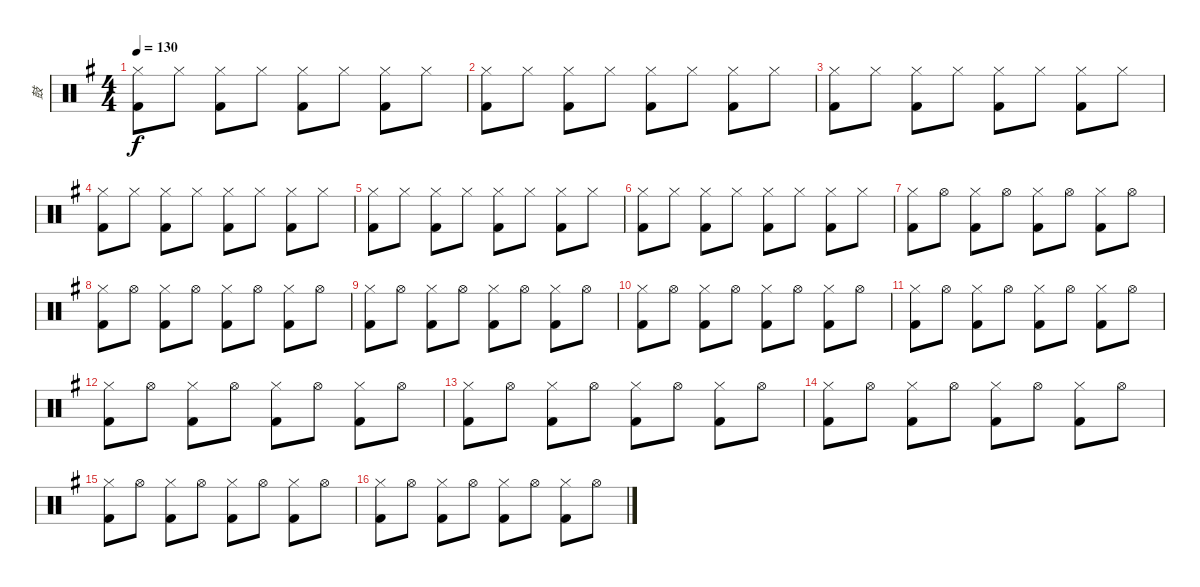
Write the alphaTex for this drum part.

\track ("鼓" "鼓") {instrument percussion}
\staff {score}
\articulation defaults
\ts (4 4)
\tempo 130
\clef neutral
\ks g
("Hi-Hat (closed)" "Kick (hit) 2").8{dy f} "Hi-Hat (closed)".8 ("Hi-Hat (closed)" "Kick (hit) 2").8 "Hi-Hat (closed)".8 ("Hi-Hat (closed)" "Kick (hit) 2").8 "Hi-Hat (closed)".8 ("Hi-Hat (closed)" "Kick (hit) 2").8 "Hi-Hat (closed)".8 |
("Hi-Hat (closed)" "Kick (hit) 2").8 "Hi-Hat (closed)".8 ("Hi-Hat (closed)" "Kick (hit) 2").8 "Hi-Hat (closed)".8 ("Hi-Hat (closed)" "Kick (hit) 2").8 "Hi-Hat (closed)".8 ("Hi-Hat (closed)" "Kick (hit) 2").8 "Hi-Hat (closed)".8 |
("Hi-Hat (closed)" "Kick (hit) 2").8 "Hi-Hat (closed)".8 ("Hi-Hat (closed)" "Kick (hit) 2").8 "Hi-Hat (closed)".8 ("Hi-Hat (closed)" "Kick (hit) 2").8 "Hi-Hat (closed)".8 ("Hi-Hat (closed)" "Kick (hit) 2").8 "Hi-Hat (closed)".8 |
("Hi-Hat (closed)" "Kick (hit) 2").8 "Hi-Hat (closed)".8 ("Hi-Hat (closed)" "Kick (hit) 2").8 "Hi-Hat (closed)".8 ("Hi-Hat (closed)" "Kick (hit) 2").8 "Hi-Hat (closed)".8 ("Hi-Hat (closed)" "Kick (hit) 2").8 "Hi-Hat (closed)".8 |
("Hi-Hat (closed)" "Kick (hit) 2").8 "Hi-Hat (closed)".8 ("Hi-Hat (closed)" "Kick (hit) 2").8 "Hi-Hat (closed)".8 ("Hi-Hat (closed)" "Kick (hit) 2").8 "Hi-Hat (closed)".8 ("Hi-Hat (closed)" "Kick (hit) 2").8 "Hi-Hat (closed)".8 |
("Hi-Hat (closed)" "Kick (hit) 2").8 "Hi-Hat (closed)".8 ("Hi-Hat (closed)" "Kick (hit) 2").8 "Hi-Hat (closed)".8 ("Hi-Hat (closed)" "Kick (hit) 2").8 "Hi-Hat (closed)".8 ("Hi-Hat (closed)" "Kick (hit) 2").8 "Hi-Hat (closed)".8 |
("Hi-Hat (closed)" "Kick (hit) 2").8 "Hi-Hat (open)".8 ("Hi-Hat (closed)" "Kick (hit) 2").8 "Hi-Hat (open)".8 ("Hi-Hat (closed)" "Kick (hit) 2").8 "Hi-Hat (open)".8 ("Hi-Hat (closed)" "Kick (hit) 2").8 "Hi-Hat (open)".8 |
("Hi-Hat (closed)" "Kick (hit) 2").8 "Hi-Hat (open)".8 ("Hi-Hat (closed)" "Kick (hit) 2").8 "Hi-Hat (open)".8 ("Hi-Hat (closed)" "Kick (hit) 2").8 "Hi-Hat (open)".8 ("Hi-Hat (closed)" "Kick (hit) 2").8 "Hi-Hat (open)".8 |
("Hi-Hat (closed)" "Kick (hit) 2").8 "Hi-Hat (open)".8 ("Hi-Hat (closed)" "Kick (hit) 2").8 "Hi-Hat (open)".8 ("Hi-Hat (closed)" "Kick (hit) 2").8 "Hi-Hat (open)".8 ("Hi-Hat (closed)" "Kick (hit) 2").8 "Hi-Hat (open)".8 |
("Hi-Hat (closed)" "Kick (hit) 2").8 "Hi-Hat (open)".8 ("Hi-Hat (closed)" "Kick (hit) 2").8 "Hi-Hat (open)".8 ("Hi-Hat (closed)" "Kick (hit) 2").8 "Hi-Hat (open)".8 ("Hi-Hat (closed)" "Kick (hit) 2").8 "Hi-Hat (open)".8 |
("Hi-Hat (closed)" "Kick (hit) 2").8 "Hi-Hat (open)".8 ("Hi-Hat (closed)" "Kick (hit) 2").8 "Hi-Hat (open)".8 ("Hi-Hat (closed)" "Kick (hit) 2").8 "Hi-Hat (open)".8 ("Hi-Hat (closed)" "Kick (hit) 2").8 "Hi-Hat (open)".8 |
("Hi-Hat (closed)" "Kick (hit) 2").8 "Hi-Hat (open)".8 ("Hi-Hat (closed)" "Kick (hit) 2").8 "Hi-Hat (open)".8 ("Hi-Hat (closed)" "Kick (hit) 2").8 "Hi-Hat (open)".8 ("Hi-Hat (closed)" "Kick (hit) 2").8 "Hi-Hat (open)".8 |
("Hi-Hat (closed)" "Kick (hit) 2").8 "Hi-Hat (open)".8 ("Hi-Hat (closed)" "Kick (hit) 2").8 "Hi-Hat (open)".8 ("Hi-Hat (closed)" "Kick (hit) 2").8 "Hi-Hat (open)".8 ("Hi-Hat (closed)" "Kick (hit) 2").8 "Hi-Hat (open)".8 |
("Hi-Hat (closed)" "Kick (hit) 2").8 "Hi-Hat (open)".8 ("Hi-Hat (closed)" "Kick (hit) 2").8 "Hi-Hat (open)".8 ("Hi-Hat (closed)" "Kick (hit) 2").8 "Hi-Hat (open)".8 ("Hi-Hat (closed)" "Kick (hit) 2").8 "Hi-Hat (open)".8 |
("Hi-Hat (closed)" "Kick (hit) 2").8 "Hi-Hat (open)".8 ("Hi-Hat (closed)" "Kick (hit) 2").8 "Hi-Hat (open)".8 ("Hi-Hat (closed)" "Kick (hit) 2").8 "Hi-Hat (open)".8 ("Hi-Hat (closed)" "Kick (hit) 2").8 "Hi-Hat (open)".8 |
("Hi-Hat (closed)" "Kick (hit) 2").8 "Hi-Hat (open)".8 ("Hi-Hat (closed)" "Kick (hit) 2").8 "Hi-Hat (open)".8 ("Hi-Hat (closed)" "Kick (hit) 2").8 "Hi-Hat (open)".8 ("Hi-Hat (closed)" "Kick (hit) 2").8 "Hi-Hat (open)".8
